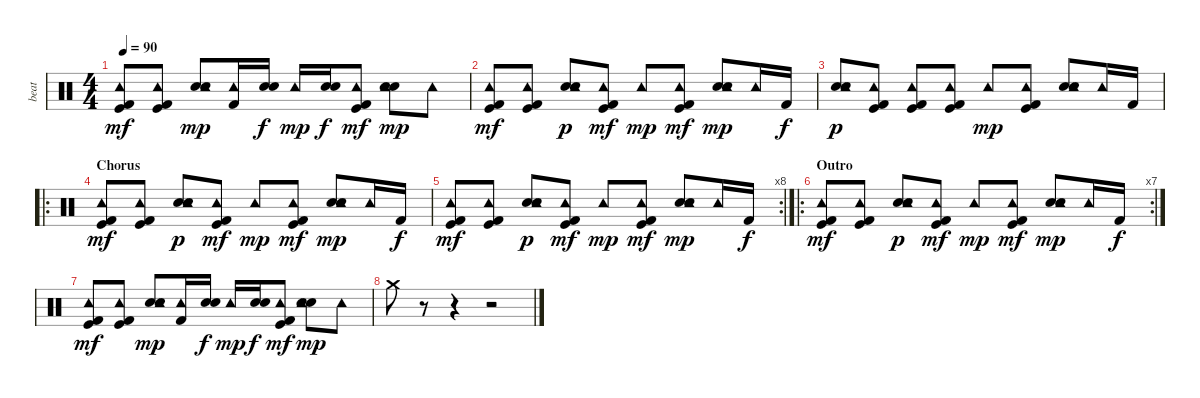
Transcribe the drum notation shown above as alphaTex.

\track ("beat" "beat") {instrument percussion}
\staff {score}
\articulation defaults
\ts (4 4)
\tempo 90
\clef neutral
\ks c
("Kick (hit)" "Kick (hit) 2" "Tambourine (hit)").8{dy mf} ("Kick (hit)" "Kick (hit) 2" "Tambourine (hit)").8 ("Snare (hit) 2" "Electric Snare (hit)" "Tambourine (hit)").8{dy mp} ("Kick (hit) 2" "Tambourine (hit)").16 ("Snare (hit) 2" "Electric Snare (hit)").16{dy f} "Tambourine (hit)".16{dy mp} ("Snare (hit) 2" "Electric Snare (hit)").16{dy f} ("Kick (hit)" "Kick (hit) 2" "Tambourine (hit)").8{dy mf} ("Snare (hit) 2" "Electric Snare (hit)" "Tambourine (hit)").8{dy mp} "Tambourine (hit)".8 |
("Kick (hit)" "Kick (hit) 2" "Tambourine (hit)").8{dy mf} ("Kick (hit)" "Kick (hit) 2" "Tambourine (hit)").8 ("Snare (hit) 2" "Electric Snare (hit)" "Tambourine (hit)").8{dy p} ("Kick (hit)" "Kick (hit) 2" "Tambourine (hit)").8{dy mf} "Tambourine (hit)".8{dy mp} ("Kick (hit)" "Kick (hit) 2" "Tambourine (hit)").8{dy mf} ("Snare (hit) 2" "Electric Snare (hit)" "Tambourine (hit)").8{dy mp} "Tambourine (hit)".16 "Kick (hit) 2".16{dy f} |
("Snare (hit) 2" "Electric Snare (hit)" "Tambourine (hit)").8{dy p} ("Kick (hit)" "Kick (hit) 2" "Tambourine (hit)").8 ("Kick (hit)" "Kick (hit) 2" "Tambourine (hit)").8 ("Kick (hit)" "Kick (hit) 2" "Tambourine (hit)").8 "Tambourine (hit)".8{dy mp} ("Kick (hit)" "Kick (hit) 2" "Tambourine (hit)").8 ("Snare (hit) 2" "Electric Snare (hit)" "Tambourine (hit)").8 "Tambourine (hit)".16 "Kick (hit) 2".16 |
\ro
\section ("" "Chorus")
("Kick (hit)" "Kick (hit) 2" "Tambourine (hit)").8{dy mf} ("Kick (hit)" "Kick (hit) 2" "Tambourine (hit)").8 ("Snare (hit) 2" "Electric Snare (hit)" "Tambourine (hit)").8{dy p} ("Kick (hit)" "Kick (hit) 2" "Tambourine (hit)").8{dy mf} "Tambourine (hit)".8{dy mp} ("Kick (hit)" "Kick (hit) 2" "Tambourine (hit)").8{dy mf} ("Snare (hit) 2" "Electric Snare (hit)" "Tambourine (hit)").8{dy mp} "Tambourine (hit)".16 "Kick (hit) 2".16{dy f} |
\rc 8
("Kick (hit)" "Kick (hit) 2" "Tambourine (hit)").8{dy mf} ("Kick (hit)" "Kick (hit) 2" "Tambourine (hit)").8 ("Snare (hit) 2" "Electric Snare (hit)" "Tambourine (hit)").8{dy p} ("Kick (hit)" "Kick (hit) 2" "Tambourine (hit)").8{dy mf} "Tambourine (hit)".8{dy mp} ("Kick (hit)" "Kick (hit) 2" "Tambourine (hit)").8{dy mf} ("Snare (hit) 2" "Electric Snare (hit)" "Tambourine (hit)").8{dy mp} "Tambourine (hit)".16 "Kick (hit) 2".16{dy f} |
\ro
\rc 7
\section ("" "Outro")
("Kick (hit)" "Kick (hit) 2" "Tambourine (hit)").8{dy mf} ("Kick (hit)" "Kick (hit) 2" "Tambourine (hit)").8 ("Snare (hit) 2" "Electric Snare (hit)" "Tambourine (hit)").8{dy p} ("Kick (hit)" "Kick (hit) 2" "Tambourine (hit)").8{dy mf} "Tambourine (hit)".8{dy mp} ("Kick (hit)" "Kick (hit) 2" "Tambourine (hit)").8{dy mf} ("Snare (hit) 2" "Electric Snare (hit)" "Tambourine (hit)").8{dy mp} "Tambourine (hit)".16 "Kick (hit) 2".16{dy f} |
("Kick (hit)" "Kick (hit) 2" "Tambourine (hit)").8{dy mf} ("Kick (hit)" "Kick (hit) 2" "Tambourine (hit)").8 ("Snare (hit) 2" "Electric Snare (hit)" "Tambourine (hit)").8{dy mp} ("Kick (hit) 2" "Tambourine (hit)").16 ("Snare (hit) 2" "Electric Snare (hit)").16{dy f} "Tambourine (hit)".16{dy mp} ("Snare (hit) 2" "Electric Snare (hit)").16{dy f} ("Kick (hit)" "Kick (hit) 2" "Tambourine (hit)").8{dy mf} ("Snare (hit) 2" "Electric Snare (hit)" "Tambourine (hit)").8{dy mp} "Tambourine (hit)".8 |
"Crash medium (hit)".8 r.8 r.4 r.2
